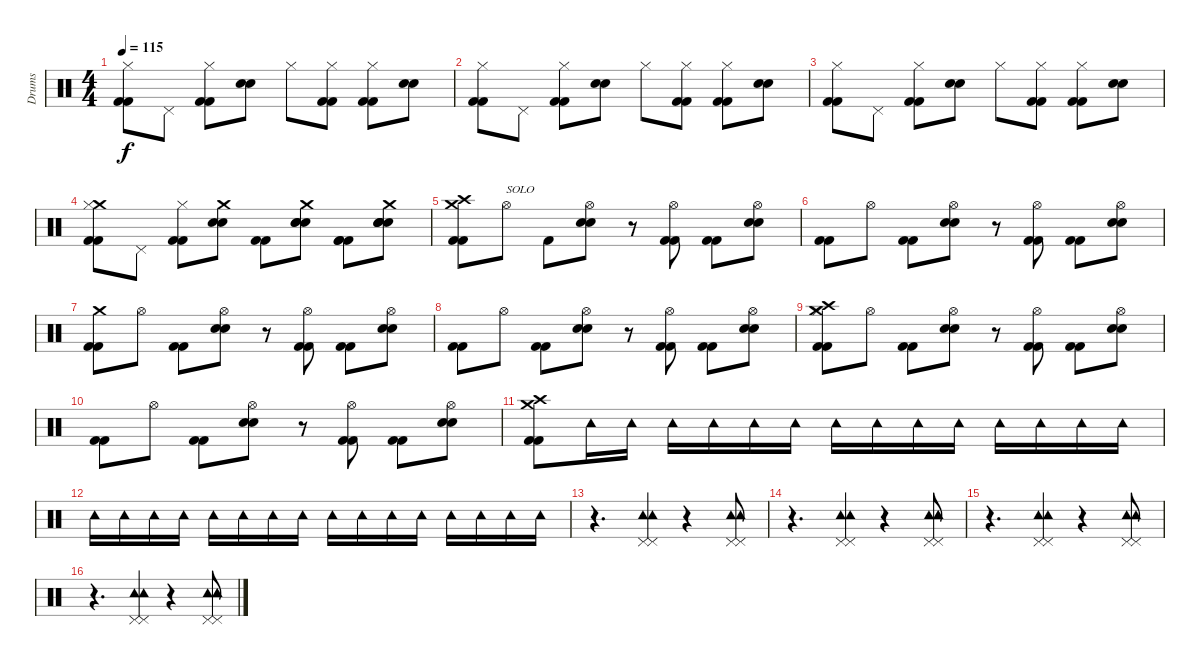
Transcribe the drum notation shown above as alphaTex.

\track ("Drums" "Drums") {instrument percussion}
\staff {score}
\articulation defaults
\ts (4 4)
\tempo 115
\clef neutral
\ks c
("Hi-Hat (closed)" "Kick (hit) 2" "Kick (hit) 2").8{dy f} "Pedal Hi-Hat (hit)".8 ("Hi-Hat (closed)" "Kick (hit) 2" "Kick (hit) 2").8 ("Snare (hit) 2" "Snare (hit) 2").8 "Hi-Hat (closed)".8 ("Hi-Hat (closed)" "Kick (hit) 2" "Kick (hit) 2").8 ("Hi-Hat (closed)" "Kick (hit) 2" "Kick (hit) 2").8 ("Snare (hit) 2" "Snare (hit) 2").8 |
("Hi-Hat (closed)" "Kick (hit) 2" "Kick (hit) 2").8 "Pedal Hi-Hat (hit)".8 ("Hi-Hat (closed)" "Kick (hit) 2" "Kick (hit) 2").8 ("Snare (hit) 2" "Snare (hit) 2").8 "Hi-Hat (closed)".8 ("Hi-Hat (closed)" "Kick (hit) 2" "Kick (hit) 2").8 ("Hi-Hat (closed)" "Kick (hit) 2" "Kick (hit) 2").8 ("Snare (hit) 2" "Snare (hit) 2").8 |
("Hi-Hat (closed)" "Kick (hit) 2" "Kick (hit) 2").8 "Pedal Hi-Hat (hit)".8 ("Hi-Hat (closed)" "Kick (hit) 2" "Kick (hit) 2").8 ("Snare (hit) 2" "Snare (hit) 2").8 "Hi-Hat (closed)".8 ("Hi-Hat (closed)" "Kick (hit) 2" "Kick (hit) 2").8 ("Hi-Hat (closed)" "Kick (hit) 2" "Kick (hit) 2").8 ("Snare (hit) 2" "Snare (hit) 2").8 |
("Crash medium (hit)" "Hi-Hat (closed)" "Kick (hit) 2" "Kick (hit) 2").8 "Pedal Hi-Hat (hit)".8 ("Hi-Hat (closed)" "Kick (hit) 2" "Kick (hit) 2").8 ("Crash medium (hit)" "Snare (hit) 2" "Snare (hit) 2").8 ("Kick (hit) 2" "Kick (hit) 2").8 ("Crash medium (hit)" "Snare (hit) 2" "Snare (hit) 2" "Snare (hit) 2").8 ("Kick (hit) 2" "Kick (hit) 2" "Kick (hit) 2").8 ("Crash medium (hit)" "Snare (hit) 2" "Snare (hit) 2" "Snare (hit) 2" "Snare (hit) 2").8 |
("Crash medium (hit)" "Crash high (hit)" "Kick (hit) 2" "Kick (hit) 2").8 "Hi-Hat (open)".8{txt "SOLO"} "Kick (hit) 2".8 ("Hi-Hat (open)" "Snare (hit) 2" "Snare (hit) 2").8 r.8 ("Hi-Hat (open)" "Kick (hit) 2" "Kick (hit) 2").8 ("Kick (hit) 2" "Kick (hit) 2").8 ("Hi-Hat (open)" "Snare (hit) 2" "Snare (hit) 2").8 |
("Kick (hit) 2" "Kick (hit) 2").8 "Hi-Hat (open)".8 ("Kick (hit) 2" "Kick (hit) 2").8 ("Hi-Hat (open)" "Snare (hit) 2" "Snare (hit) 2").8 r.8 ("Hi-Hat (open)" "Kick (hit) 2" "Kick (hit) 2").8 ("Kick (hit) 2" "Kick (hit) 2").8 ("Hi-Hat (open)" "Snare (hit) 2" "Snare (hit) 2").8 |
("Crash medium (hit)" "Kick (hit) 2" "Kick (hit) 2").8 "Hi-Hat (open)".8 ("Kick (hit) 2" "Kick (hit) 2").8 ("Hi-Hat (open)" "Snare (hit) 2" "Snare (hit) 2").8 r.8 ("Hi-Hat (open)" "Kick (hit) 2" "Kick (hit) 2").8 ("Kick (hit) 2" "Kick (hit) 2").8 ("Hi-Hat (open)" "Snare (hit) 2" "Snare (hit) 2").8 |
("Kick (hit) 2" "Kick (hit) 2").8 "Hi-Hat (open)".8 ("Kick (hit) 2" "Kick (hit) 2").8 ("Hi-Hat (open)" "Snare (hit) 2" "Snare (hit) 2").8 r.8 ("Hi-Hat (open)" "Kick (hit) 2" "Kick (hit) 2").8 ("Kick (hit) 2" "Kick (hit) 2").8 ("Hi-Hat (open)" "Snare (hit) 2" "Snare (hit) 2").8 |
("Crash medium (hit)" "Crash high (hit)" "Hi-Hat (closed)" "Kick (hit) 2" "Kick (hit) 2").8 "Hi-Hat (open)".8 ("Kick (hit) 2" "Kick (hit) 2").8 ("Hi-Hat (open)" "Snare (hit) 2" "Snare (hit) 2").8 r.8 ("Hi-Hat (open)" "Kick (hit) 2" "Kick (hit) 2").8 ("Kick (hit) 2" "Kick (hit) 2").8 ("Hi-Hat (open)" "Snare (hit) 2" "Snare (hit) 2").8 |
("Kick (hit) 2" "Kick (hit) 2").8 "Hi-Hat (open)".8 ("Kick (hit) 2" "Kick (hit) 2").8 ("Hi-Hat (open)" "Snare (hit) 2" "Snare (hit) 2").8 r.8 ("Hi-Hat (open)" "Kick (hit) 2" "Kick (hit) 2").8 ("Kick (hit) 2" "Kick (hit) 2").8 ("Hi-Hat (open)" "Snare (hit) 2" "Snare (hit) 2").8 |
("Crash high (hit)" "Crash medium (hit)" "Kick (hit) 2" "Kick (hit) 2").8 "Tambourine (hit)".16 "Tambourine (hit)".16 "Tambourine (hit)".16 "Tambourine (hit)".16 "Tambourine (hit)".16 "Tambourine (hit)".16 "Tambourine (hit)".16 "Tambourine (hit)".16 "Tambourine (hit)".16 "Tambourine (hit)".16 "Tambourine (hit)".16 "Tambourine (hit)".16 "Tambourine (hit)".16 "Tambourine (hit)".16 |
"Tambourine (hit)".16 "Tambourine (hit)".16 "Tambourine (hit)".16 "Tambourine (hit)".16 "Tambourine (hit)".16 "Tambourine (hit)".16 "Tambourine (hit)".16 "Tambourine (hit)".16 "Tambourine (hit)".16 "Tambourine (hit)".16 "Tambourine (hit)".16 "Tambourine (hit)".16 "Tambourine (hit)".16 "Tambourine (hit)".16 "Tambourine (hit)".16 "Tambourine (hit)".16 |
r.4{d} ("Pedal Hi-Hat (hit)" "Pedal Hi-Hat (hit)" "Tambourine (hit)" "Tambourine (hit)").4 r.4 ("Pedal Hi-Hat (hit)" "Pedal Hi-Hat (hit)" "Tambourine (hit)" "Tambourine (hit)").8 |
r.4{d} ("Pedal Hi-Hat (hit)" "Pedal Hi-Hat (hit)" "Tambourine (hit)" "Tambourine (hit)").4 r.4 ("Pedal Hi-Hat (hit)" "Pedal Hi-Hat (hit)" "Tambourine (hit)" "Tambourine (hit)" "Tambourine (hit)").8 |
r.4{d} ("Pedal Hi-Hat (hit)" "Pedal Hi-Hat (hit)" "Tambourine (hit)" "Tambourine (hit)").4 r.4 ("Pedal Hi-Hat (hit)" "Pedal Hi-Hat (hit)" "Tambourine (hit)" "Tambourine (hit)").8 |
r.4{d} ("Pedal Hi-Hat (hit)" "Pedal Hi-Hat (hit)" "Tambourine (hit)" "Tambourine (hit)").4 r.4 ("Pedal Hi-Hat (hit)" "Pedal Hi-Hat (hit)" "Tambourine (hit)" "Tambourine (hit)" "Tambourine (hit)").8
